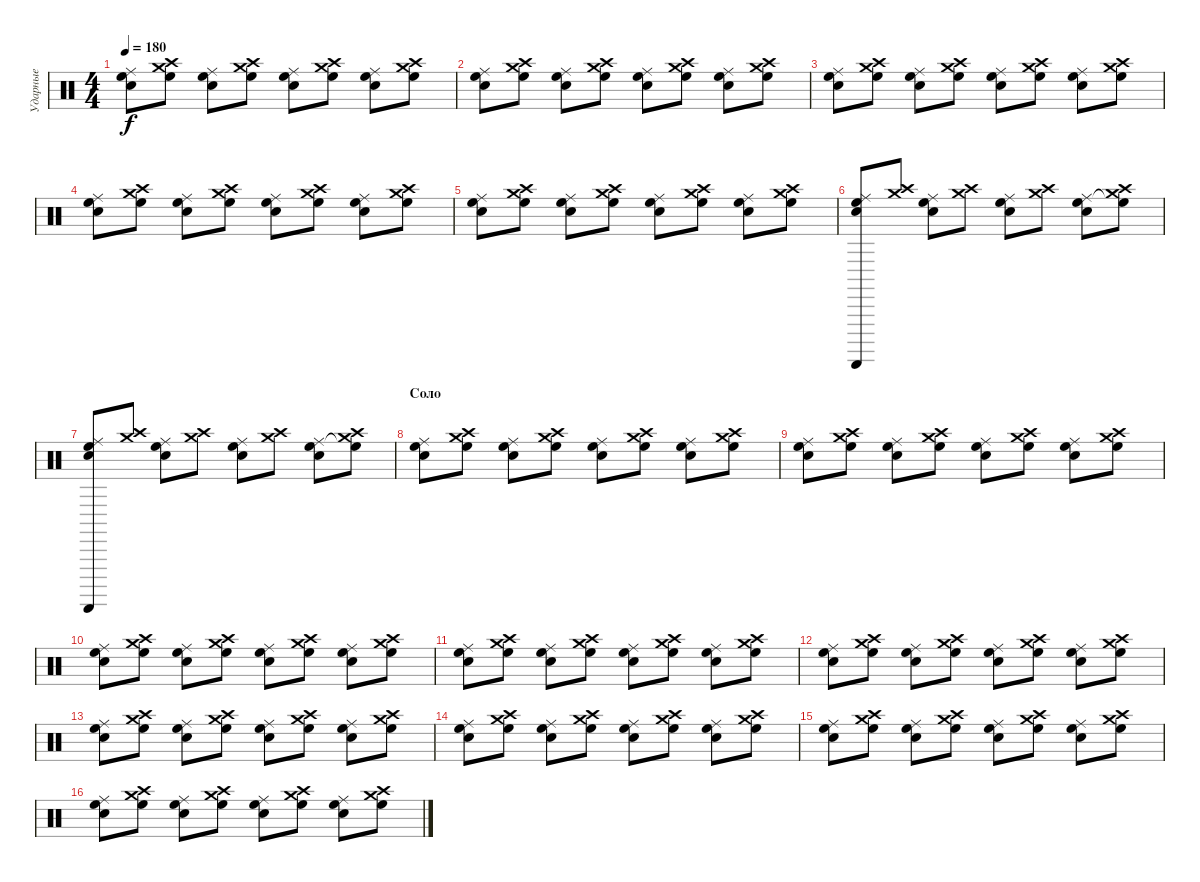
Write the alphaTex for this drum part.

\track ("Ударные" "Ударные") {instrument percussion}
\staff {score}
\articulation defaults
\ts (4 4)
\tempo 180
\clef neutral
\ks c
("High Floor Tom (hit)" "Ride (middle)" "Snare (hit) 2").8{dy f} ("High Floor Tom (hit)" "Crash high (hit)" "Crash medium (hit)").8 ("High Floor Tom (hit)" "Ride (middle)" "Snare (hit) 2").8 ("High Floor Tom (hit)" "Crash high (hit)" "Crash medium (hit)").8 ("High Floor Tom (hit)" "Ride (middle)" "Snare (hit) 2").8 ("High Floor Tom (hit)" "Crash high (hit)" "Crash medium (hit)").8 ("High Floor Tom (hit)" "Ride (middle)" "Snare (hit) 2").8 ("High Floor Tom (hit)" "Crash high (hit)" "Crash medium (hit)").8 |
("High Floor Tom (hit)" "Ride (middle)" "Snare (hit) 2").8 ("High Floor Tom (hit)" "Crash high (hit)" "Crash medium (hit)").8 ("High Floor Tom (hit)" "Ride (middle)" "Snare (hit) 2").8 ("High Floor Tom (hit)" "Crash high (hit)" "Crash medium (hit)").8 ("High Floor Tom (hit)" "Ride (middle)" "Snare (hit) 2").8 ("High Floor Tom (hit)" "Crash high (hit)" "Crash medium (hit)").8 ("High Floor Tom (hit)" "Ride (middle)" "Snare (hit) 2").8 ("High Floor Tom (hit)" "Crash high (hit)" "Crash medium (hit)").8 |
("High Floor Tom (hit)" "Ride (middle)" "Snare (hit) 2").8 ("High Floor Tom (hit)" "Crash high (hit)" "Crash medium (hit)").8 ("High Floor Tom (hit)" "Ride (middle)" "Snare (hit) 2").8 ("High Floor Tom (hit)" "Crash high (hit)" "Crash medium (hit)").8 ("High Floor Tom (hit)" "Ride (middle)" "Snare (hit) 2").8 ("High Floor Tom (hit)" "Crash high (hit)" "Crash medium (hit)").8 ("High Floor Tom (hit)" "Ride (middle)" "Snare (hit) 2").8 ("High Floor Tom (hit)" "Crash high (hit)" "Crash medium (hit)").8 |
("High Floor Tom (hit)" "Ride (middle)" "Snare (hit) 2").8 ("High Floor Tom (hit)" "Crash high (hit)" "Crash medium (hit)").8 ("High Floor Tom (hit)" "Ride (middle)" "Snare (hit) 2").8 ("High Floor Tom (hit)" "Crash high (hit)" "Crash medium (hit)").8 ("High Floor Tom (hit)" "Ride (middle)" "Snare (hit) 2").8 ("High Floor Tom (hit)" "Crash high (hit)" "Crash medium (hit)").8 ("High Floor Tom (hit)" "Ride (middle)" "Snare (hit) 2").8 ("High Floor Tom (hit)" "Crash high (hit)" "Crash medium (hit)").8 |
("High Floor Tom (hit)" "Ride (middle)" "Snare (hit) 2").8 ("High Floor Tom (hit)" "Crash high (hit)" "Crash medium (hit)").8 ("High Floor Tom (hit)" "Ride (middle)" "Snare (hit) 2").8 ("High Floor Tom (hit)" "Crash high (hit)" "Crash medium (hit)").8 ("High Floor Tom (hit)" "Ride (middle)" "Snare (hit) 2").8 ("High Floor Tom (hit)" "Crash high (hit)" "Crash medium (hit)").8 ("High Floor Tom (hit)" "Ride (middle)" "Snare (hit) 2").8 ("High Floor Tom (hit)" "Crash high (hit)" "Crash medium (hit)").8 |
("Guiro (scrap-return)" "High Floor Tom (hit)" "Ride (middle)" "Snare (hit) 2").8 ("Crash high (hit)" "Crash medium (hit)").8 ("High Floor Tom (hit)" "Ride (middle)" "Snare (hit) 2").8 ("Crash high (hit)" "Crash medium (hit)").8 ("High Floor Tom (hit)" "Ride (middle)" "Snare (hit) 2").8 ("Crash high (hit)" "Crash medium (hit)").8 ("High Floor Tom (hit)" "Ride (middle)" "Snare (hit) 2").8 ("High Floor Tom (hit)"{t} "Crash high (hit)" "Crash medium (hit)").8 |
("Guiro (scrap-return)" "High Floor Tom (hit)" "Ride (middle)" "Snare (hit) 2").8 ("Crash high (hit)" "Crash medium (hit)").8 ("High Floor Tom (hit)" "Ride (middle)" "Snare (hit) 2").8 ("Crash high (hit)" "Crash medium (hit)").8 ("High Floor Tom (hit)" "Ride (middle)" "Snare (hit) 2").8 ("Crash high (hit)" "Crash medium (hit)").8 ("High Floor Tom (hit)" "Ride (middle)" "Snare (hit) 2").8 ("High Floor Tom (hit)"{t} "Crash high (hit)" "Crash medium (hit)").8 |
\section ("" "Соло")
("High Floor Tom (hit)" "Ride (middle)" "Snare (hit) 2").8 ("High Floor Tom (hit)" "Crash high (hit)" "Crash medium (hit)").8 ("High Floor Tom (hit)" "Ride (middle)" "Snare (hit) 2").8 ("High Floor Tom (hit)" "Crash high (hit)" "Crash medium (hit)").8 ("High Floor Tom (hit)" "Ride (middle)" "Snare (hit) 2").8 ("High Floor Tom (hit)" "Crash high (hit)" "Crash medium (hit)").8 ("High Floor Tom (hit)" "Ride (middle)" "Snare (hit) 2").8 ("High Floor Tom (hit)" "Crash high (hit)" "Crash medium (hit)").8 |
("High Floor Tom (hit)" "Ride (middle)" "Snare (hit) 2").8 ("High Floor Tom (hit)" "Crash high (hit)" "Crash medium (hit)").8 ("High Floor Tom (hit)" "Ride (middle)" "Snare (hit) 2").8 ("High Floor Tom (hit)" "Crash high (hit)" "Crash medium (hit)").8 ("High Floor Tom (hit)" "Ride (middle)" "Snare (hit) 2").8 ("High Floor Tom (hit)" "Crash high (hit)" "Crash medium (hit)").8 ("High Floor Tom (hit)" "Ride (middle)" "Snare (hit) 2").8 ("High Floor Tom (hit)" "Crash high (hit)" "Crash medium (hit)").8 |
("High Floor Tom (hit)" "Ride (middle)" "Snare (hit) 2").8 ("High Floor Tom (hit)" "Crash high (hit)" "Crash medium (hit)").8 ("High Floor Tom (hit)" "Ride (middle)" "Snare (hit) 2").8 ("High Floor Tom (hit)" "Crash high (hit)" "Crash medium (hit)").8 ("High Floor Tom (hit)" "Ride (middle)" "Snare (hit) 2").8 ("High Floor Tom (hit)" "Crash high (hit)" "Crash medium (hit)").8 ("High Floor Tom (hit)" "Ride (middle)" "Snare (hit) 2").8 ("High Floor Tom (hit)" "Crash high (hit)" "Crash medium (hit)").8 |
("High Floor Tom (hit)" "Ride (middle)" "Snare (hit) 2").8 ("High Floor Tom (hit)" "Crash high (hit)" "Crash medium (hit)").8 ("High Floor Tom (hit)" "Ride (middle)" "Snare (hit) 2").8 ("High Floor Tom (hit)" "Crash high (hit)" "Crash medium (hit)").8 ("High Floor Tom (hit)" "Ride (middle)" "Snare (hit) 2").8 ("High Floor Tom (hit)" "Crash high (hit)" "Crash medium (hit)").8 ("High Floor Tom (hit)" "Ride (middle)" "Snare (hit) 2").8 ("High Floor Tom (hit)" "Crash high (hit)" "Crash medium (hit)").8 |
("High Floor Tom (hit)" "Ride (middle)" "Snare (hit) 2").8 ("High Floor Tom (hit)" "Crash high (hit)" "Crash medium (hit)").8 ("High Floor Tom (hit)" "Ride (middle)" "Snare (hit) 2").8 ("High Floor Tom (hit)" "Crash high (hit)" "Crash medium (hit)").8 ("High Floor Tom (hit)" "Ride (middle)" "Snare (hit) 2").8 ("High Floor Tom (hit)" "Crash high (hit)" "Crash medium (hit)").8 ("High Floor Tom (hit)" "Ride (middle)" "Snare (hit) 2").8 ("High Floor Tom (hit)" "Crash high (hit)" "Crash medium (hit)").8 |
("High Floor Tom (hit)" "Ride (middle)" "Snare (hit) 2").8 ("High Floor Tom (hit)" "Crash high (hit)" "Crash medium (hit)").8 ("High Floor Tom (hit)" "Ride (middle)" "Snare (hit) 2").8 ("High Floor Tom (hit)" "Crash high (hit)" "Crash medium (hit)").8 ("High Floor Tom (hit)" "Ride (middle)" "Snare (hit) 2").8 ("High Floor Tom (hit)" "Crash high (hit)" "Crash medium (hit)").8 ("High Floor Tom (hit)" "Ride (middle)" "Snare (hit) 2").8 ("High Floor Tom (hit)" "Crash high (hit)" "Crash medium (hit)").8 |
("High Floor Tom (hit)" "Ride (middle)" "Snare (hit) 2").8 ("High Floor Tom (hit)" "Crash high (hit)" "Crash medium (hit)").8 ("High Floor Tom (hit)" "Ride (middle)" "Snare (hit) 2").8 ("High Floor Tom (hit)" "Crash high (hit)" "Crash medium (hit)").8 ("High Floor Tom (hit)" "Ride (middle)" "Snare (hit) 2").8 ("High Floor Tom (hit)" "Crash high (hit)" "Crash medium (hit)").8 ("High Floor Tom (hit)" "Ride (middle)" "Snare (hit) 2").8 ("High Floor Tom (hit)" "Crash high (hit)" "Crash medium (hit)").8 |
("High Floor Tom (hit)" "Ride (middle)" "Snare (hit) 2").8 ("High Floor Tom (hit)" "Crash high (hit)" "Crash medium (hit)").8 ("High Floor Tom (hit)" "Ride (middle)" "Snare (hit) 2").8 ("High Floor Tom (hit)" "Crash high (hit)" "Crash medium (hit)").8 ("High Floor Tom (hit)" "Ride (middle)" "Snare (hit) 2").8 ("High Floor Tom (hit)" "Crash high (hit)" "Crash medium (hit)").8 ("High Floor Tom (hit)" "Ride (middle)" "Snare (hit) 2").8 ("High Floor Tom (hit)" "Crash high (hit)" "Crash medium (hit)").8 |
("High Floor Tom (hit)" "Ride (middle)" "Snare (hit) 2").8 ("High Floor Tom (hit)" "Crash high (hit)" "Crash medium (hit)").8 ("High Floor Tom (hit)" "Ride (middle)" "Snare (hit) 2").8 ("High Floor Tom (hit)" "Crash high (hit)" "Crash medium (hit)").8 ("High Floor Tom (hit)" "Ride (middle)" "Snare (hit) 2").8 ("High Floor Tom (hit)" "Crash high (hit)" "Crash medium (hit)").8 ("High Floor Tom (hit)" "Ride (middle)" "Snare (hit) 2").8 ("High Floor Tom (hit)" "Crash high (hit)" "Crash medium (hit)").8
